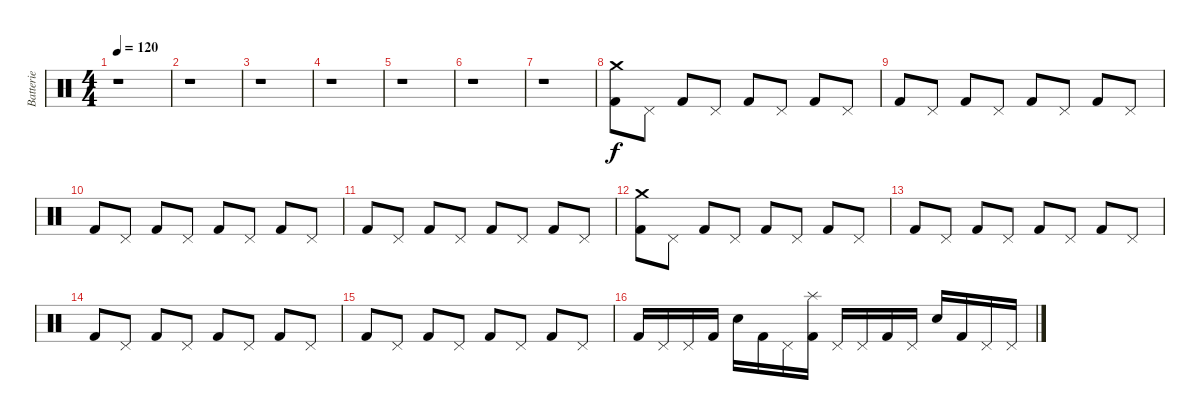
\track ("Batterie" "Batterie") {instrument percussion}
\staff {score}
\articulation defaults
\ts (4 4)
\tempo 120
\clef neutral
\ks c
r.1{dy f} |
r.1 |
r.1 |
r.1 |
r.1 |
r.1 |
r.1 |
("Crash medium (hit)" "Kick (hit) 2").8 "Pedal Hi-Hat (hit)".8 "Kick (hit) 2".8 "Pedal Hi-Hat (hit)".8 "Kick (hit) 2".8 "Pedal Hi-Hat (hit)".8 "Kick (hit) 2".8 "Pedal Hi-Hat (hit)".8 |
"Kick (hit) 2".8 "Pedal Hi-Hat (hit)".8 "Kick (hit) 2".8 "Pedal Hi-Hat (hit)".8 "Kick (hit) 2".8 "Pedal Hi-Hat (hit)".8 "Kick (hit) 2".8 "Pedal Hi-Hat (hit)".8 |
"Kick (hit) 2".8 "Pedal Hi-Hat (hit)".8 "Kick (hit) 2".8 "Pedal Hi-Hat (hit)".8 "Kick (hit) 2".8 "Pedal Hi-Hat (hit)".8 "Kick (hit) 2".8 "Pedal Hi-Hat (hit)".8 |
"Kick (hit) 2".8 "Pedal Hi-Hat (hit)".8 "Kick (hit) 2".8 "Pedal Hi-Hat (hit)".8 "Kick (hit) 2".8 "Pedal Hi-Hat (hit)".8 "Kick (hit) 2".8 "Pedal Hi-Hat (hit)".8 |
("Crash medium (hit)" "Kick (hit) 2").8 "Pedal Hi-Hat (hit)".8 "Kick (hit) 2".8 "Pedal Hi-Hat (hit)".8 "Kick (hit) 2".8 "Pedal Hi-Hat (hit)".8 "Kick (hit) 2".8 "Pedal Hi-Hat (hit)".8 |
"Kick (hit) 2".8 "Pedal Hi-Hat (hit)".8 "Kick (hit) 2".8 "Pedal Hi-Hat (hit)".8 "Kick (hit) 2".8 "Pedal Hi-Hat (hit)".8 "Kick (hit) 2".8 "Pedal Hi-Hat (hit)".8 |
"Kick (hit) 2".8 "Pedal Hi-Hat (hit)".8 "Kick (hit) 2".8 "Pedal Hi-Hat (hit)".8 "Kick (hit) 2".8 "Pedal Hi-Hat (hit)".8 "Kick (hit) 2".8 "Pedal Hi-Hat (hit)".8 |
"Kick (hit) 2".8 "Pedal Hi-Hat (hit)".8 "Kick (hit) 2".8 "Pedal Hi-Hat (hit)".8 "Kick (hit) 2".8 "Pedal Hi-Hat (hit)".8 "Kick (hit) 2".8 "Pedal Hi-Hat (hit)".8 |
"Kick (hit) 2".16 "Pedal Hi-Hat (hit)".16 "Pedal Hi-Hat (hit)".16 "Kick (hit) 2".16 "Electric Snare (hit)".16 "Kick (hit) 2".16 "Pedal Hi-Hat (hit)".16 ("Splash (hit)" "Kick (hit) 2").16 "Pedal Hi-Hat (hit)".16 "Pedal Hi-Hat (hit)".16 "Kick (hit) 2".16 "Pedal Hi-Hat (hit)".16 "Electric Snare (hit)".16 "Kick (hit) 2".16 "Pedal Hi-Hat (hit)".16 "Pedal Hi-Hat (hit)".16
